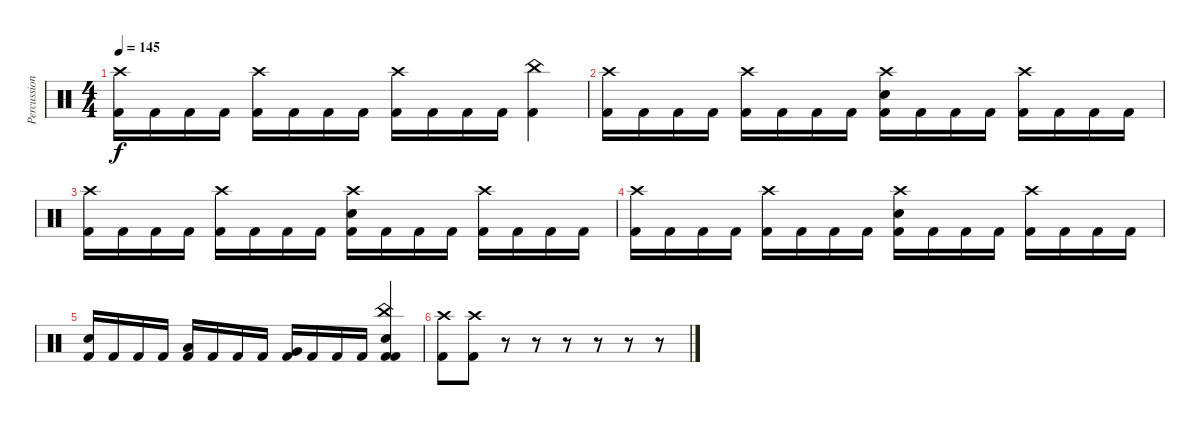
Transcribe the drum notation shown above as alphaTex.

\track ("Percussion" "Percussion") {instrument percussion}
\staff {score}
\articulation defaults
\ts (4 4)
\tempo 145
\clef neutral
\ks c
("Crash high (hit)" "Kick (hit) 2").16{dy f} "Kick (hit) 2".16 "Kick (hit) 2".16 "Kick (hit) 2".16 ("Crash high (hit)" "Kick (hit) 2").16 "Kick (hit) 2".16 "Kick (hit) 2".16 "Kick (hit) 2".16 ("Crash high (hit)" "Kick (hit) 2").16 "Kick (hit) 2".16 "Kick (hit) 2".16 "Kick (hit) 2".16 ("China (hit)" "Kick (hit) 2").4 |
("Crash high (hit)" "Kick (hit) 2").16 "Kick (hit) 2".16 "Kick (hit) 2".16 "Kick (hit) 2".16 ("Crash high (hit)" "Kick (hit) 2").16 "Kick (hit) 2".16 "Kick (hit) 2".16 "Kick (hit) 2".16 ("Crash high (hit)" "Electric Snare (hit)" "Kick (hit) 2").16 "Kick (hit) 2".16 "Kick (hit) 2".16 "Kick (hit) 2".16 ("Crash high (hit)" "Kick (hit) 2").16 "Kick (hit) 2".16 "Kick (hit) 2".16 "Kick (hit) 2".16 |
("Crash high (hit)" "Kick (hit) 2").16 "Kick (hit) 2".16 "Kick (hit) 2".16 "Kick (hit) 2".16 ("Crash high (hit)" "Kick (hit) 2").16 "Kick (hit) 2".16 "Kick (hit) 2".16 "Kick (hit) 2".16 ("Crash high (hit)" "Electric Snare (hit)" "Kick (hit) 2").16 "Kick (hit) 2".16 "Kick (hit) 2".16 "Kick (hit) 2".16 ("Crash high (hit)" "Kick (hit) 2").16 "Kick (hit) 2".16 "Kick (hit) 2".16 "Kick (hit) 2".16 |
("Crash high (hit)" "Kick (hit) 2").16 "Kick (hit) 2".16 "Kick (hit) 2".16 "Kick (hit) 2".16 ("Crash high (hit)" "Kick (hit) 2").16 "Kick (hit) 2".16 "Kick (hit) 2".16 "Kick (hit) 2".16 ("Crash high (hit)" "Electric Snare (hit)" "Kick (hit) 2").16 "Kick (hit) 2".16 "Kick (hit) 2".16 "Kick (hit) 2".16 ("Crash high (hit)" "Kick (hit) 2").16 "Kick (hit) 2".16 "Kick (hit) 2".16 "Kick (hit) 2".16 |
("Electric Snare (hit)" "Kick (hit) 2").16 "Kick (hit) 2".16 "Kick (hit) 2".16 "Kick (hit) 2".16 ("Low Tom (hit)" "Kick (hit) 2").16 "Kick (hit) 2".16 "Kick (hit) 2".16 "Kick (hit) 2".16 ("Very Low Tom (hit)" "Kick (hit) 2").16 "Kick (hit) 2".16 "Kick (hit) 2".16 "Kick (hit) 2".16 ("China (hit)" "Electric Snare (hit)" "Kick (hit) 2" "Kick (hit) 2").4 |
("Crash high (hit)" "Kick (hit) 2").8 ("Crash high (hit)" "Kick (hit) 2").8 r.8 r.8 r.8 r.8 r.8 r.8
